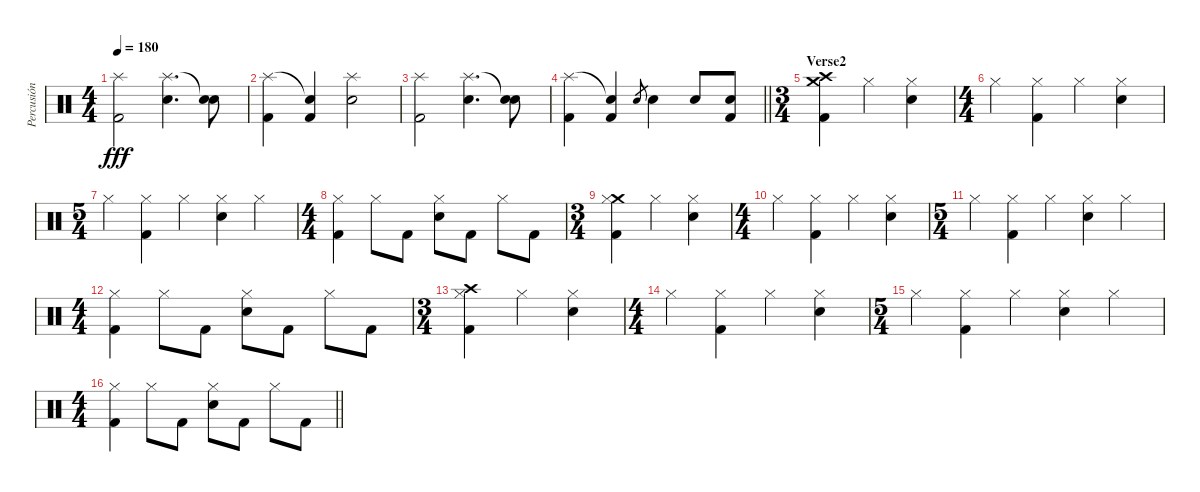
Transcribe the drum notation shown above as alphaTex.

\track ("Percusión" "Percusión") {instrument percussion}
\staff {score}
\articulation defaults
\ts (4 4)
\tempo 180
\clef neutral
\ks c
("Splash (hit)" "Kick (hit) 2").2{dy fff} ("Splash (hit)" "Electric Snare (hit)").4{d} ("Snare (hit)"{t} "Electric Snare (hit)").8 |
("Splash (hit)" "Kick (hit) 2").4 ("Snare (hit)"{t} "Kick (hit) 2").4 ("Splash (hit)" "Electric Snare (hit)").2 |
("Splash (hit)" "Kick (hit) 2").2 ("Splash (hit)" "Electric Snare (hit)").4{d} ("Snare (hit)"{t} "Electric Snare (hit)").8 |
\barLineRight lightlight
("Splash (hit)" "Kick (hit) 2").4 ("Snare (hit)"{t} "Kick (hit) 2").4 "Electric Snare (hit)".8{gr} "Electric Snare (hit)".4 "Electric Snare (hit)".8 ("Electric Snare (hit)" "Kick (hit) 2").8 |
\ts (3 4)
\section ("" "Verse2")
("Crash medium (hit)" "Crash high (hit)" "Kick (hit) 2").4 "Hi-Hat (closed)".4 ("Hi-Hat (closed)" "Electric Snare (hit)").4 |
\ts (4 4)
"Hi-Hat (closed)".4 ("Hi-Hat (closed)" "Kick (hit) 2").4 "Hi-Hat (closed)".4 ("Hi-Hat (closed)" "Electric Snare (hit)").4 |
\ts (5 4)
"Hi-Hat (closed)".4 ("Hi-Hat (closed)" "Kick (hit) 2").4 "Hi-Hat (closed)".4 ("Hi-Hat (closed)" "Electric Snare (hit)").4 "Hi-Hat (closed)".4 |
\ts (4 4)
("Hi-Hat (closed)" "Kick (hit) 2").4 "Hi-Hat (closed)".8 "Kick (hit) 2".8 ("Hi-Hat (closed)" "Electric Snare (hit)").8 "Kick (hit) 2".8 "Hi-Hat (closed)".8 "Kick (hit) 2".8 |
\ts (3 4)
("Crash medium (hit)" "Hi-Hat (closed)" "Kick (hit) 2").4 "Hi-Hat (closed)".4 ("Hi-Hat (closed)" "Electric Snare (hit)").4 |
\ts (4 4)
"Hi-Hat (closed)".4 ("Hi-Hat (closed)" "Kick (hit) 2").4 "Hi-Hat (closed)".4 ("Hi-Hat (closed)" "Electric Snare (hit)").4 |
\ts (5 4)
"Hi-Hat (closed)".4 ("Hi-Hat (closed)" "Kick (hit) 2").4 "Hi-Hat (closed)".4 ("Hi-Hat (closed)" "Electric Snare (hit)").4 "Hi-Hat (closed)".4 |
\ts (4 4)
("Hi-Hat (closed)" "Kick (hit) 2").4 "Hi-Hat (closed)".8 "Kick (hit) 2".8 ("Hi-Hat (closed)" "Electric Snare (hit)").8 "Kick (hit) 2".8 "Hi-Hat (closed)".8 "Kick (hit) 2".8 |
\ts (3 4)
("Crash high (hit)" "Hi-Hat (closed)" "Kick (hit) 2").4 "Hi-Hat (closed)".4 ("Hi-Hat (closed)" "Electric Snare (hit)").4 |
\ts (4 4)
"Hi-Hat (closed)".4 ("Hi-Hat (closed)" "Kick (hit) 2").4 "Hi-Hat (closed)".4 ("Hi-Hat (closed)" "Electric Snare (hit)").4 |
\ts (5 4)
"Hi-Hat (closed)".4 ("Hi-Hat (closed)" "Kick (hit) 2").4 "Hi-Hat (closed)".4 ("Hi-Hat (closed)" "Electric Snare (hit)").4 "Hi-Hat (closed)".4 |
\ts (4 4)
\barLineRight lightlight
("Hi-Hat (closed)" "Kick (hit) 2").4 "Hi-Hat (closed)".8 "Kick (hit) 2".8 ("Hi-Hat (closed)" "Electric Snare (hit)").8 "Kick (hit) 2".8 "Hi-Hat (closed)".8 "Kick (hit) 2".8
